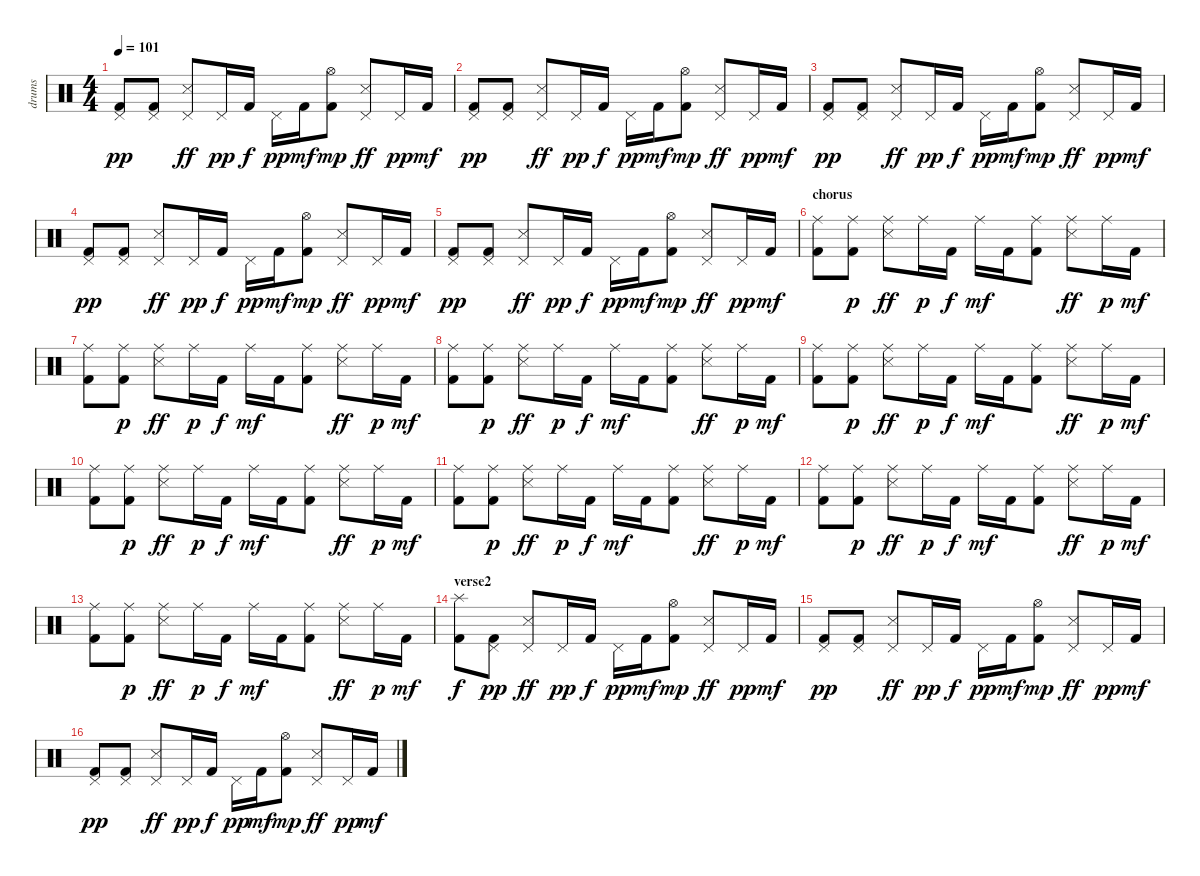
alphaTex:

\track ("drums" "drums") {instrument percussion}
\staff {score}
\articulation defaults
\ts (4 4)
\tempo 101
\clef neutral
\ks c
("Pedal Hi-Hat (hit)" "Kick (hit) 2").8{dy pp} ("Pedal Hi-Hat (hit)" "Kick (hit) 2").8 ("Pedal Hi-Hat (hit)" "Snare (side stick) 3").8{dy ff} "Pedal Hi-Hat (hit)".16{dy pp} "Kick (hit) 2".16{dy f} "Pedal Hi-Hat (hit)".16{dy pp} "Kick (hit) 2".16{dy mf} ("Hi-Hat (open)" "Kick (hit) 2").8{dy mp} ("Pedal Hi-Hat (hit)" "Snare (side stick) 3").8{dy ff} "Pedal Hi-Hat (hit)".16{dy pp} "Kick (hit) 2".16{dy mf} |
("Pedal Hi-Hat (hit)" "Kick (hit) 2").8{dy pp} ("Pedal Hi-Hat (hit)" "Kick (hit) 2").8 ("Pedal Hi-Hat (hit)" "Snare (side stick) 3").8{dy ff} "Pedal Hi-Hat (hit)".16{dy pp} "Kick (hit) 2".16{dy f} "Pedal Hi-Hat (hit)".16{dy pp} "Kick (hit) 2".16{dy mf} ("Hi-Hat (open)" "Kick (hit) 2").8{dy mp} ("Pedal Hi-Hat (hit)" "Snare (side stick) 3").8{dy ff} "Pedal Hi-Hat (hit)".16{dy pp} "Kick (hit) 2".16{dy mf} |
("Pedal Hi-Hat (hit)" "Kick (hit) 2").8{dy pp} ("Pedal Hi-Hat (hit)" "Kick (hit) 2").8 ("Pedal Hi-Hat (hit)" "Snare (side stick) 3").8{dy ff} "Pedal Hi-Hat (hit)".16{dy pp} "Kick (hit) 2".16{dy f} "Pedal Hi-Hat (hit)".16{dy pp} "Kick (hit) 2".16{dy mf} ("Hi-Hat (open)" "Kick (hit) 2").8{dy mp} ("Pedal Hi-Hat (hit)" "Snare (side stick) 3").8{dy ff} "Pedal Hi-Hat (hit)".16{dy pp} "Kick (hit) 2".16{dy mf} |
("Pedal Hi-Hat (hit)" "Kick (hit) 2").8{dy pp} ("Pedal Hi-Hat (hit)" "Kick (hit) 2").8 ("Pedal Hi-Hat (hit)" "Snare (side stick) 3").8{dy ff} "Pedal Hi-Hat (hit)".16{dy pp} "Kick (hit) 2".16{dy f} "Pedal Hi-Hat (hit)".16{dy pp} "Kick (hit) 2".16{dy mf} ("Hi-Hat (open)" "Kick (hit) 2").8{dy mp} ("Pedal Hi-Hat (hit)" "Snare (side stick) 3").8{dy ff} "Pedal Hi-Hat (hit)".16{dy pp} "Kick (hit) 2".16{dy mf} |
("Pedal Hi-Hat (hit)" "Kick (hit) 2").8{dy pp} ("Pedal Hi-Hat (hit)" "Kick (hit) 2").8 ("Pedal Hi-Hat (hit)" "Snare (side stick) 3").8{dy ff} "Pedal Hi-Hat (hit)".16{dy pp} "Kick (hit) 2".16{dy f} "Pedal Hi-Hat (hit)".16{dy pp} "Kick (hit) 2".16{dy mf} ("Hi-Hat (open)" "Kick (hit) 2").8{dy mp} ("Pedal Hi-Hat (hit)" "Snare (side stick) 3").8{dy ff} "Pedal Hi-Hat (hit)".16{dy pp} "Kick (hit) 2".16{dy mf} |
\section ("" "chorus")
("Ride (middle)" "Kick (hit) 2").8 ("Ride (middle)" "Kick (hit) 2").8{dy p} ("Ride (middle)" "Snare (side stick) 3").8{dy ff} "Ride (middle)".16{dy p} "Kick (hit) 2".16{dy f} "Ride (middle)".16{dy mf} "Kick (hit) 2".16 ("Ride (middle)" "Kick (hit) 2").8 ("Ride (middle)" "Snare (side stick) 3").8{dy ff} "Ride (middle)".16{dy p} "Kick (hit) 2".16{dy mf} |
("Ride (middle)" "Kick (hit) 2").8 ("Ride (middle)" "Kick (hit) 2").8{dy p} ("Ride (middle)" "Snare (side stick) 3").8{dy ff} "Ride (middle)".16{dy p} "Kick (hit) 2".16{dy f} "Ride (middle)".16{dy mf} "Kick (hit) 2".16 ("Ride (middle)" "Kick (hit) 2").8 ("Ride (middle)" "Snare (side stick) 3").8{dy ff} "Ride (middle)".16{dy p} "Kick (hit) 2".16{dy mf} |
("Ride (middle)" "Kick (hit) 2").8 ("Ride (middle)" "Kick (hit) 2").8{dy p} ("Ride (middle)" "Snare (side stick) 3").8{dy ff} "Ride (middle)".16{dy p} "Kick (hit) 2".16{dy f} "Ride (middle)".16{dy mf} "Kick (hit) 2".16 ("Ride (middle)" "Kick (hit) 2").8 ("Ride (middle)" "Snare (side stick) 3").8{dy ff} "Ride (middle)".16{dy p} "Kick (hit) 2".16{dy mf} |
("Ride (middle)" "Kick (hit) 2").8 ("Ride (middle)" "Kick (hit) 2").8{dy p} ("Ride (middle)" "Snare (side stick) 3").8{dy ff} "Ride (middle)".16{dy p} "Kick (hit) 2".16{dy f} "Ride (middle)".16{dy mf} "Kick (hit) 2".16 ("Ride (middle)" "Kick (hit) 2").8 ("Ride (middle)" "Snare (side stick) 3").8{dy ff} "Ride (middle)".16{dy p} "Kick (hit) 2".16{dy mf} |
("Ride (middle)" "Kick (hit) 2").8 ("Ride (middle)" "Kick (hit) 2").8{dy p} ("Ride (middle)" "Snare (side stick) 3").8{dy ff} "Ride (middle)".16{dy p} "Kick (hit) 2".16{dy f} "Ride (middle)".16{dy mf} "Kick (hit) 2".16 ("Ride (middle)" "Kick (hit) 2").8 ("Ride (middle)" "Snare (side stick) 3").8{dy ff} "Ride (middle)".16{dy p} "Kick (hit) 2".16{dy mf} |
("Ride (middle)" "Kick (hit) 2").8 ("Ride (middle)" "Kick (hit) 2").8{dy p} ("Ride (middle)" "Snare (side stick) 3").8{dy ff} "Ride (middle)".16{dy p} "Kick (hit) 2".16{dy f} "Ride (middle)".16{dy mf} "Kick (hit) 2".16 ("Ride (middle)" "Kick (hit) 2").8 ("Ride (middle)" "Snare (side stick) 3").8{dy ff} "Ride (middle)".16{dy p} "Kick (hit) 2".16{dy mf} |
("Ride (middle)" "Kick (hit) 2").8 ("Ride (middle)" "Kick (hit) 2").8{dy p} ("Ride (middle)" "Snare (side stick) 3").8{dy ff} "Ride (middle)".16{dy p} "Kick (hit) 2".16{dy f} "Ride (middle)".16{dy mf} "Kick (hit) 2".16 ("Ride (middle)" "Kick (hit) 2").8 ("Ride (middle)" "Snare (side stick) 3").8{dy ff} "Ride (middle)".16{dy p} "Kick (hit) 2".16{dy mf} |
("Ride (middle)" "Kick (hit) 2").8 ("Ride (middle)" "Kick (hit) 2").8{dy p} ("Ride (middle)" "Snare (side stick) 3").8{dy ff} "Ride (middle)".16{dy p} "Kick (hit) 2".16{dy f} "Ride (middle)".16{dy mf} "Kick (hit) 2".16 ("Ride (middle)" "Kick (hit) 2").8 ("Ride (middle)" "Snare (side stick) 3").8{dy ff} "Ride (middle)".16{dy p} "Kick (hit) 2".16{dy mf} |
\section ("" "verse2")
("Splash (hit)" "Kick (hit) 2").8{dy f} ("Pedal Hi-Hat (hit)" "Kick (hit) 2").8{dy pp} ("Pedal Hi-Hat (hit)" "Snare (side stick) 3").8{dy ff} "Pedal Hi-Hat (hit)".16{dy pp} "Kick (hit) 2".16{dy f} "Pedal Hi-Hat (hit)".16{dy pp} "Kick (hit) 2".16{dy mf} ("Hi-Hat (open)" "Kick (hit) 2").8{dy mp} ("Pedal Hi-Hat (hit)" "Snare (side stick) 3").8{dy ff} "Pedal Hi-Hat (hit)".16{dy pp} "Kick (hit) 2".16{dy mf} |
("Pedal Hi-Hat (hit)" "Kick (hit) 2").8{dy pp} ("Pedal Hi-Hat (hit)" "Kick (hit) 2").8 ("Pedal Hi-Hat (hit)" "Snare (side stick) 3").8{dy ff} "Pedal Hi-Hat (hit)".16{dy pp} "Kick (hit) 2".16{dy f} "Pedal Hi-Hat (hit)".16{dy pp} "Kick (hit) 2".16{dy mf} ("Hi-Hat (open)" "Kick (hit) 2").8{dy mp} ("Pedal Hi-Hat (hit)" "Snare (side stick) 3").8{dy ff} "Pedal Hi-Hat (hit)".16{dy pp} "Kick (hit) 2".16{dy mf} |
("Pedal Hi-Hat (hit)" "Kick (hit) 2").8{dy pp} ("Pedal Hi-Hat (hit)" "Kick (hit) 2").8 ("Pedal Hi-Hat (hit)" "Snare (side stick) 3").8{dy ff} "Pedal Hi-Hat (hit)".16{dy pp} "Kick (hit) 2".16{dy f} "Pedal Hi-Hat (hit)".16{dy pp} "Kick (hit) 2".16{dy mf} ("Hi-Hat (open)" "Kick (hit) 2").8{dy mp} ("Pedal Hi-Hat (hit)" "Snare (side stick) 3").8{dy ff} "Pedal Hi-Hat (hit)".16{dy pp} "Kick (hit) 2".16{dy mf}
